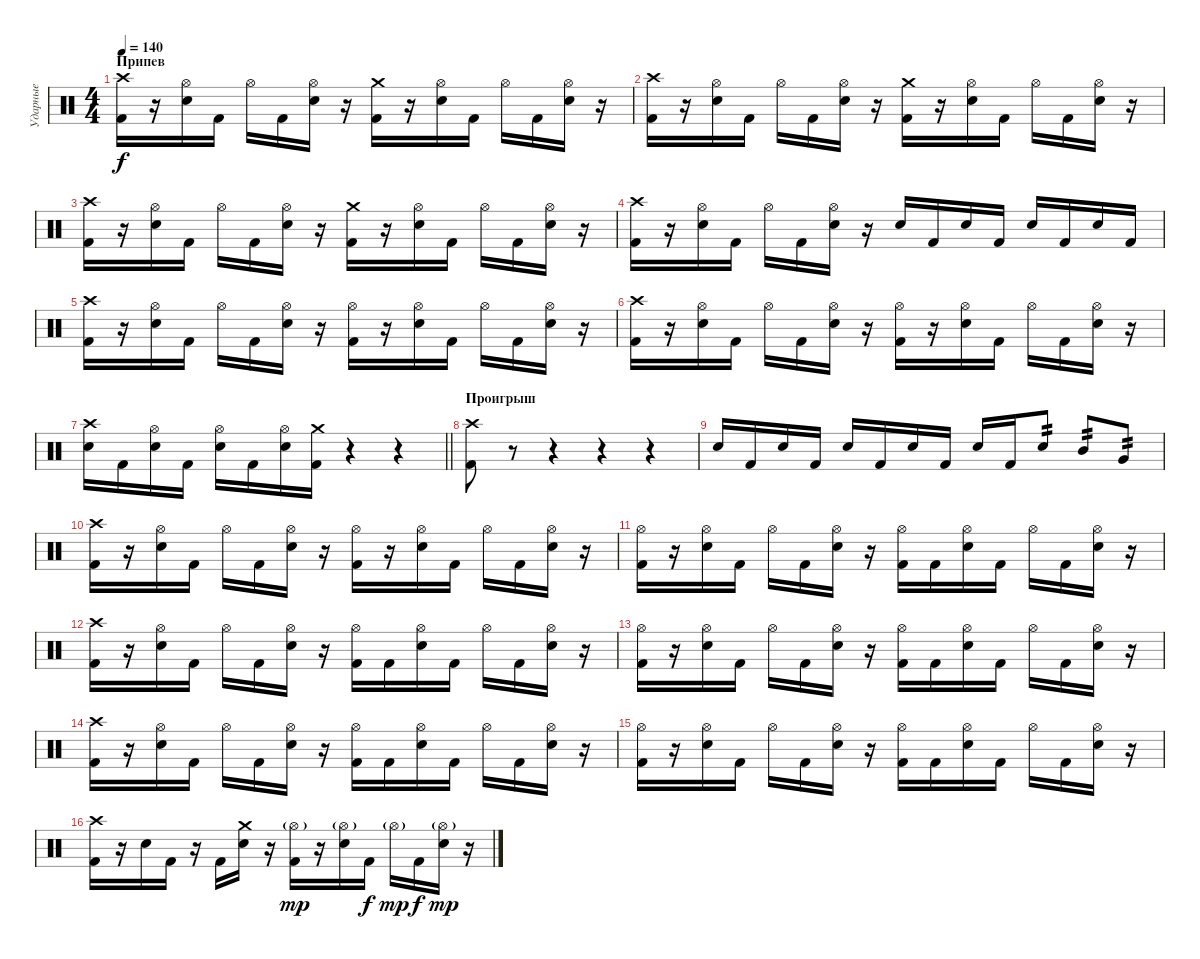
\track ("Ударные" "Ударные") {instrument percussion}
\staff {score}
\articulation defaults
\ts (4 4)
\section ("" "Припев")
\tempo 140
\clef neutral
\ks c
("Crash high (hit)" "Kick (hit) 2").16{dy f} r.16 ("Hi-Hat (open)" "Electric Snare (hit)").16 "Kick (hit) 2".16 "Hi-Hat (open)".16 "Kick (hit) 2".16 ("Hi-Hat (open)" "Electric Snare (hit)").16 r.16 ("Crash medium (hit)" "Kick (hit) 2").16 r.16 ("Hi-Hat (open)" "Electric Snare (hit)").16 "Kick (hit) 2".16 "Hi-Hat (open)".16 "Kick (hit) 2".16 ("Hi-Hat (open)" "Electric Snare (hit)").16 r.16 |
("Crash high (hit)" "Kick (hit) 2").16 r.16 ("Hi-Hat (open)" "Electric Snare (hit)").16 "Kick (hit) 2".16 "Hi-Hat (open)".16 "Kick (hit) 2".16 ("Hi-Hat (open)" "Electric Snare (hit)").16 r.16 ("Crash medium (hit)" "Kick (hit) 2").16 r.16 ("Hi-Hat (open)" "Electric Snare (hit)").16 "Kick (hit) 2".16 "Hi-Hat (open)".16 "Kick (hit) 2".16 ("Hi-Hat (open)" "Electric Snare (hit)").16 r.16 |
("Crash high (hit)" "Kick (hit) 2").16 r.16 ("Hi-Hat (open)" "Electric Snare (hit)").16 "Kick (hit) 2".16 "Hi-Hat (open)".16 "Kick (hit) 2".16 ("Hi-Hat (open)" "Electric Snare (hit)").16 r.16 ("Crash medium (hit)" "Kick (hit) 2").16 r.16 ("Hi-Hat (open)" "Electric Snare (hit)").16 "Kick (hit) 2".16 "Hi-Hat (open)".16 "Kick (hit) 2".16 ("Hi-Hat (open)" "Electric Snare (hit)").16 r.16 |
("Crash high (hit)" "Kick (hit) 2").16 r.16 ("Hi-Hat (open)" "Electric Snare (hit)").16 "Kick (hit) 2".16 "Hi-Hat (open)".16 "Kick (hit) 2".16 ("Hi-Hat (open)" "Electric Snare (hit)").16 r.16 "Electric Snare (hit)".16 "Kick (hit) 2".16 "Electric Snare (hit)".16 "Kick (hit) 2".16 "Electric Snare (hit)".16 "Kick (hit) 2".16 "Electric Snare (hit)".16 "Kick (hit) 2".16 |
("Crash high (hit)" "Kick (hit) 2").16 r.16 ("Hi-Hat (open)" "Electric Snare (hit)").16 "Kick (hit) 2".16 "Hi-Hat (open)".16 "Kick (hit) 2".16 ("Hi-Hat (open)" "Electric Snare (hit)").16 r.16 ("Hi-Hat (open)" "Kick (hit) 2").16 r.16 ("Hi-Hat (open)" "Electric Snare (hit)").16 "Kick (hit) 2".16 "Hi-Hat (open)".16 "Kick (hit) 2".16 ("Hi-Hat (open)" "Electric Snare (hit)").16 r.16 |
("Crash high (hit)" "Kick (hit) 2").16 r.16 ("Hi-Hat (open)" "Electric Snare (hit)").16 "Kick (hit) 2".16 "Hi-Hat (open)".16 "Kick (hit) 2".16 ("Hi-Hat (open)" "Electric Snare (hit)").16 r.16 ("Hi-Hat (open)" "Kick (hit) 2").16 r.16 ("Hi-Hat (open)" "Electric Snare (hit)").16 "Kick (hit) 2".16 "Hi-Hat (open)".16 "Kick (hit) 2".16 ("Hi-Hat (open)" "Electric Snare (hit)").16 r.16 |
\barLineRight lightlight
("Crash high (hit)" "Electric Snare (hit)").16 "Kick (hit) 2".16 ("Hi-Hat (open)" "Electric Snare (hit)").16 "Kick (hit) 2".16 ("Hi-Hat (open)" "Electric Snare (hit)").16 "Kick (hit) 2".16 ("Hi-Hat (open)" "Electric Snare (hit)").16 ("Crash medium (hit)" "Kick (hit) 2").16 r.4 r.4 |
\section ("" "Проигрыш")
("Crash high (hit)" "Kick (hit) 2").8 r.8 r.4 r.4 r.4 |
"Electric Snare (hit)".16 "Kick (hit) 2".16 "Electric Snare (hit)".16 "Kick (hit) 2".16 "Electric Snare (hit)".16 "Kick (hit) 2".16 "Electric Snare (hit)".16 "Kick (hit) 2".16 "Electric Snare (hit)".16 "Kick (hit) 2".16 "Electric Snare (hit)".8{tp 2} "Mid Tom (hit)".8{tp 2} "Very Low Tom (hit)".8{tp 2} |
("Crash high (hit)" "Kick (hit) 2").16 r.16 ("Hi-Hat (open)" "Electric Snare (hit)").16 "Kick (hit) 2".16 "Hi-Hat (open)".16 "Kick (hit) 2".16 ("Hi-Hat (open)" "Electric Snare (hit)").16 r.16 ("Hi-Hat (open)" "Kick (hit) 2").16 r.16 ("Hi-Hat (open)" "Electric Snare (hit)").16 "Kick (hit) 2".16 "Hi-Hat (open)".16 "Kick (hit) 2".16 ("Hi-Hat (open)" "Electric Snare (hit)").16 r.16 |
("Hi-Hat (open)" "Kick (hit) 2").16 r.16 ("Hi-Hat (open)" "Electric Snare (hit)").16 "Kick (hit) 2".16 "Hi-Hat (open)".16 "Kick (hit) 2".16 ("Hi-Hat (open)" "Electric Snare (hit)").16 r.16 ("Hi-Hat (open)" "Kick (hit) 2").16 "Kick (hit) 2".16 ("Hi-Hat (open)" "Electric Snare (hit)").16 "Kick (hit) 2".16 "Hi-Hat (open)".16 "Kick (hit) 2".16 ("Hi-Hat (open)" "Electric Snare (hit)").16 r.16 |
("Crash high (hit)" "Kick (hit) 2").16 r.16 ("Hi-Hat (open)" "Electric Snare (hit)").16 "Kick (hit) 2".16 "Hi-Hat (open)".16 "Kick (hit) 2".16 ("Hi-Hat (open)" "Electric Snare (hit)").16 r.16 ("Hi-Hat (open)" "Kick (hit) 2").16 "Kick (hit) 2".16 ("Hi-Hat (open)" "Electric Snare (hit)").16 "Kick (hit) 2".16 "Hi-Hat (open)".16 "Kick (hit) 2".16 ("Hi-Hat (open)" "Electric Snare (hit)").16 r.16 |
("Hi-Hat (open)" "Kick (hit) 2").16 r.16 ("Hi-Hat (open)" "Electric Snare (hit)").16 "Kick (hit) 2".16 "Hi-Hat (open)".16 "Kick (hit) 2".16 ("Hi-Hat (open)" "Electric Snare (hit)").16 r.16 ("Hi-Hat (open)" "Kick (hit) 2").16 "Kick (hit) 2".16 ("Hi-Hat (open)" "Electric Snare (hit)").16 "Kick (hit) 2".16 "Hi-Hat (open)".16 "Kick (hit) 2".16 ("Hi-Hat (open)" "Electric Snare (hit)").16 r.16 |
("Crash high (hit)" "Kick (hit) 2").16 r.16 ("Hi-Hat (open)" "Electric Snare (hit)").16 "Kick (hit) 2".16 "Hi-Hat (open)".16 "Kick (hit) 2".16 ("Hi-Hat (open)" "Electric Snare (hit)").16 r.16 ("Hi-Hat (open)" "Kick (hit) 2").16 "Kick (hit) 2".16 ("Hi-Hat (open)" "Electric Snare (hit)").16 "Kick (hit) 2".16 "Hi-Hat (open)".16 "Kick (hit) 2".16 ("Hi-Hat (open)" "Electric Snare (hit)").16 r.16 |
("Hi-Hat (open)" "Kick (hit) 2").16 r.16 ("Hi-Hat (open)" "Electric Snare (hit)").16 "Kick (hit) 2".16 "Hi-Hat (open)".16 "Kick (hit) 2".16 ("Hi-Hat (open)" "Electric Snare (hit)").16 r.16 ("Hi-Hat (open)" "Kick (hit) 2").16 "Kick (hit) 2".16 ("Hi-Hat (open)" "Electric Snare (hit)").16 "Kick (hit) 2".16 "Hi-Hat (open)".16 "Kick (hit) 2".16 ("Hi-Hat (open)" "Electric Snare (hit)").16 r.16 |
("Crash high (hit)" "Kick (hit) 2").16 r.16 "Electric Snare (hit)".16 "Kick (hit) 2".16 r.16 "Kick (hit) 2".16 ("Crash medium (hit)" "Electric Snare (hit)").16 r.16 ("Hi-Hat (open)"{g} "Kick (hit) 2").16{dy mp} r.16 ("Hi-Hat (open)"{g} "Electric Snare (hit)").16 "Kick (hit) 2".16{dy f} "Hi-Hat (open)"{g}.16{dy mp} "Kick (hit) 2".16{dy f} ("Hi-Hat (open)"{g} "Electric Snare (hit)").16{dy mp} r.16
